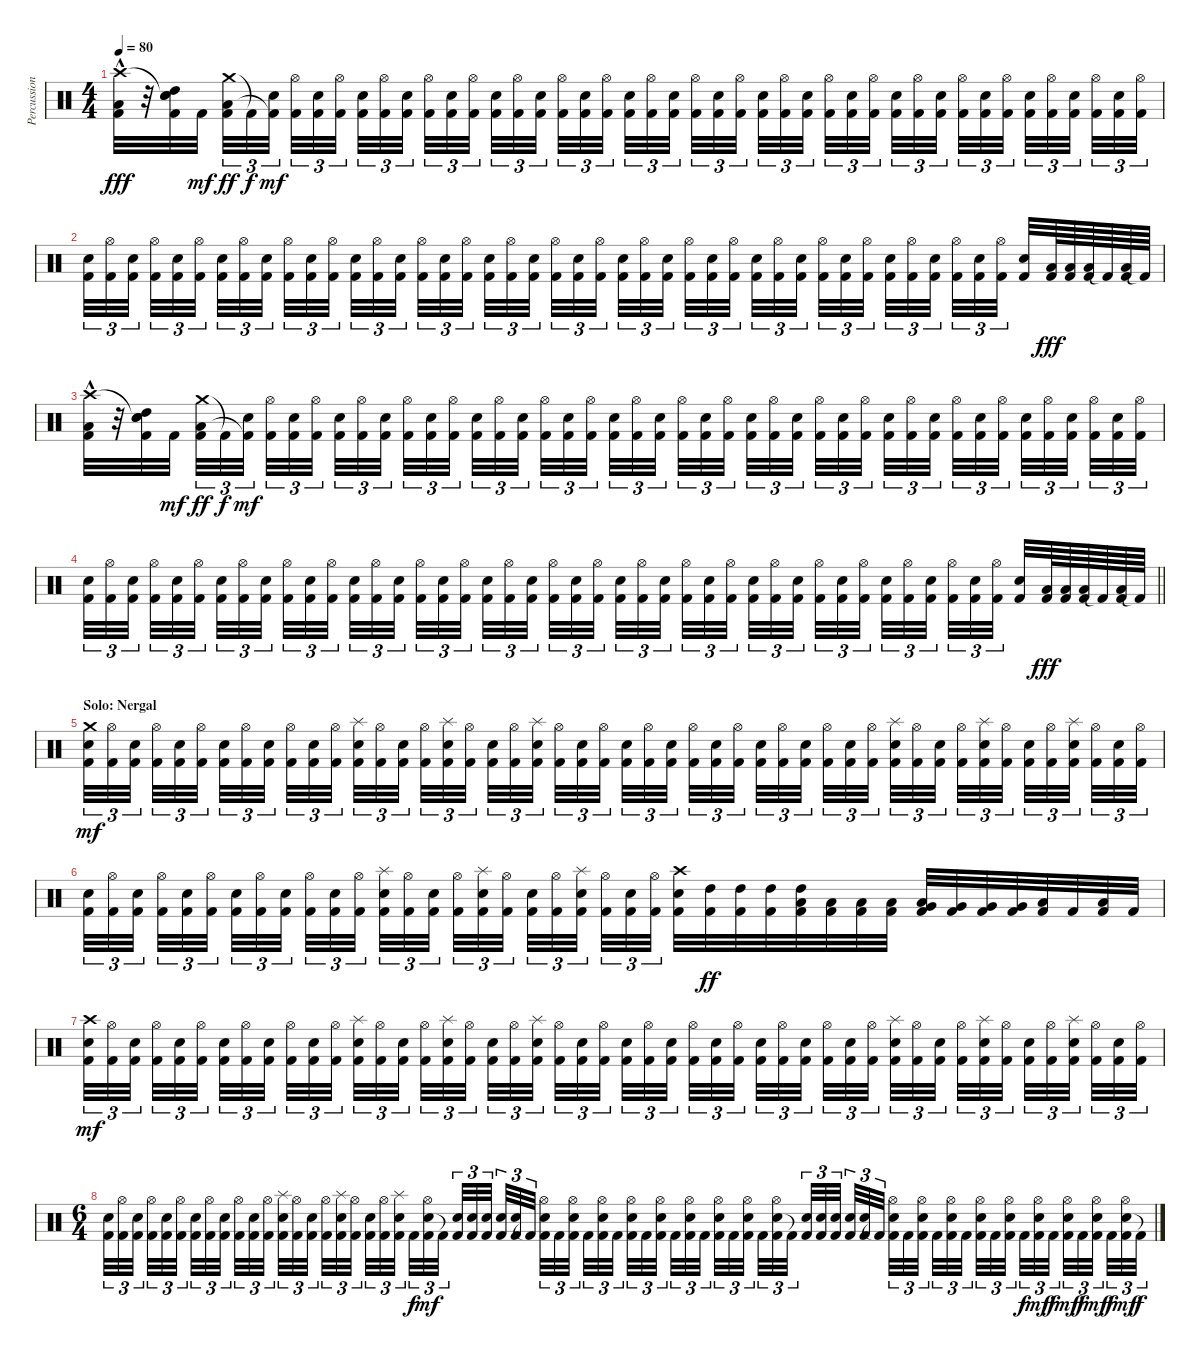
\track ("Percussion" "Percussion") {instrument percussion}
\staff {score}
\articulation defaults
\ts (4 4)
\tempo 80
\clef neutral
\ks c
("Crash high (hit)" "Low Tom (hit)"{hac} "Kick (hit) 2").32{dy fff} r.32 ("Snare (hit)"{t} "Snare (hit) 2" "High Tom (hit)" "Kick (hit) 2").32 "Kick (hit) 2".32{dy mf beam splitsecondary} ("Crash medium (hit)" "Low Tom (hit)" "Kick (hit) 2").32{tu (3 2) dy ff} "Kick (hit) 2"{t}.32{tu (3 2) dy f} ("Snare (hit) 2" "Kick (hit) 2"{t}).32{tu (3 2) dy mf beam splitsecondary} ("Hi-Hat (open)" "Kick (hit) 2").32{tu (3 2)} ("Snare (hit) 2" "Kick (hit) 2").32{tu (3 2)} ("Hi-Hat (open)" "Kick (hit) 2").32{tu (3 2)} ("Snare (hit) 2" "Kick (hit) 2").32{tu (3 2)} ("Hi-Hat (open)" "Kick (hit) 2").32{tu (3 2)} ("Snare (hit) 2" "Kick (hit) 2").32{tu (3 2) beam splitsecondary} ("Hi-Hat (open)" "Kick (hit) 2").32{tu (3 2)} ("Snare (hit) 2" "Kick (hit) 2").32{tu (3 2)} ("Hi-Hat (open)" "Kick (hit) 2").32{tu (3 2) beam splitsecondary} ("Snare (hit) 2" "Kick (hit) 2").32{tu (3 2)} ("Hi-Hat (open)" "Kick (hit) 2").32{tu (3 2)} ("Snare (hit) 2" "Kick (hit) 2").32{tu (3 2) beam splitsecondary} ("Hi-Hat (open)" "Kick (hit) 2").32{tu (3 2)} ("Snare (hit) 2" "Kick (hit) 2").32{tu (3 2)} ("Hi-Hat (open)" "Kick (hit) 2").32{tu (3 2)} ("Snare (hit) 2" "Kick (hit) 2").32{tu (3 2)} ("Hi-Hat (open)" "Kick (hit) 2").32{tu (3 2)} ("Snare (hit) 2" "Kick (hit) 2").32{tu (3 2) beam splitsecondary} ("Hi-Hat (open)" "Kick (hit) 2").32{tu (3 2)} ("Snare (hit) 2" "Kick (hit) 2").32{tu (3 2)} ("Hi-Hat (open)" "Kick (hit) 2").32{tu (3 2) beam splitsecondary} ("Snare (hit) 2" "Kick (hit) 2").32{tu (3 2)} ("Hi-Hat (open)" "Kick (hit) 2").32{tu (3 2)} ("Snare (hit) 2" "Kick (hit) 2").32{tu (3 2) beam splitsecondary} ("Hi-Hat (open)" "Kick (hit) 2").32{tu (3 2)} ("Snare (hit) 2" "Kick (hit) 2").32{tu (3 2)} ("Hi-Hat (open)" "Kick (hit) 2").32{tu (3 2)} ("Snare (hit) 2" "Kick (hit) 2").32{tu (3 2)} ("Hi-Hat (open)" "Kick (hit) 2").32{tu (3 2)} ("Snare (hit) 2" "Kick (hit) 2").32{tu (3 2) beam splitsecondary} ("Hi-Hat (open)" "Kick (hit) 2").32{tu (3 2)} ("Snare (hit) 2" "Kick (hit) 2").32{tu (3 2)} ("Hi-Hat (open)" "Kick (hit) 2").32{tu (3 2) beam splitsecondary} ("Snare (hit) 2" "Kick (hit) 2").32{tu (3 2)} ("Hi-Hat (open)" "Kick (hit) 2").32{tu (3 2)} ("Snare (hit) 2" "Kick (hit) 2").32{tu (3 2) beam splitsecondary} ("Hi-Hat (open)" "Kick (hit) 2").32{tu (3 2)} ("Snare (hit) 2" "Kick (hit) 2").32{tu (3 2)} ("Hi-Hat (open)" "Kick (hit) 2").32{tu (3 2)} |
("Snare (hit) 2" "Kick (hit) 2").32{tu (3 2)} ("Hi-Hat (open)" "Kick (hit) 2").32{tu (3 2)} ("Snare (hit) 2" "Kick (hit) 2").32{tu (3 2) beam splitsecondary} ("Hi-Hat (open)" "Kick (hit) 2").32{tu (3 2)} ("Snare (hit) 2" "Kick (hit) 2").32{tu (3 2)} ("Hi-Hat (open)" "Kick (hit) 2").32{tu (3 2) beam splitsecondary} ("Snare (hit) 2" "Kick (hit) 2").32{tu (3 2)} ("Hi-Hat (open)" "Kick (hit) 2").32{tu (3 2)} ("Snare (hit) 2" "Kick (hit) 2").32{tu (3 2) beam splitsecondary} ("Hi-Hat (open)" "Kick (hit) 2").32{tu (3 2)} ("Snare (hit) 2" "Kick (hit) 2").32{tu (3 2)} ("Hi-Hat (open)" "Kick (hit) 2").32{tu (3 2)} ("Snare (hit) 2" "Kick (hit) 2").32{tu (3 2)} ("Hi-Hat (open)" "Kick (hit) 2").32{tu (3 2)} ("Snare (hit) 2" "Kick (hit) 2").32{tu (3 2) beam splitsecondary} ("Hi-Hat (open)" "Kick (hit) 2").32{tu (3 2)} ("Snare (hit) 2" "Kick (hit) 2").32{tu (3 2)} ("Hi-Hat (open)" "Kick (hit) 2").32{tu (3 2) beam splitsecondary} ("Snare (hit) 2" "Kick (hit) 2").32{tu (3 2)} ("Hi-Hat (open)" "Kick (hit) 2").32{tu (3 2)} ("Snare (hit) 2" "Kick (hit) 2").32{tu (3 2) beam splitsecondary} ("Hi-Hat (open)" "Kick (hit) 2").32{tu (3 2)} ("Snare (hit) 2" "Kick (hit) 2").32{tu (3 2)} ("Hi-Hat (open)" "Kick (hit) 2").32{tu (3 2)} ("Snare (hit) 2" "Kick (hit) 2").32{tu (3 2)} ("Hi-Hat (open)" "Kick (hit) 2").32{tu (3 2)} ("Snare (hit) 2" "Kick (hit) 2").32{tu (3 2) beam splitsecondary} ("Hi-Hat (open)" "Kick (hit) 2").32{tu (3 2)} ("Snare (hit) 2" "Kick (hit) 2").32{tu (3 2)} ("Hi-Hat (open)" "Kick (hit) 2").32{tu (3 2) beam splitsecondary} ("Snare (hit) 2" "Kick (hit) 2").32{tu (3 2)} ("Hi-Hat (open)" "Kick (hit) 2").32{tu (3 2)} ("Snare (hit) 2" "Kick (hit) 2").32{tu (3 2) beam splitsecondary} ("Hi-Hat (open)" "Kick (hit) 2").32{tu (3 2)} ("Snare (hit) 2" "Kick (hit) 2").32{tu (3 2)} ("Hi-Hat (open)" "Kick (hit) 2").32{tu (3 2)} ("Snare (hit) 2" "Kick (hit) 2").32{tu (3 2)} ("Hi-Hat (open)" "Kick (hit) 2").32{tu (3 2)} ("Snare (hit) 2" "Kick (hit) 2").32{tu (3 2) beam splitsecondary} ("Hi-Hat (open)" "Kick (hit) 2").32{tu (3 2)} ("Snare (hit) 2" "Kick (hit) 2").32{tu (3 2)} ("Hi-Hat (open)" "Kick (hit) 2").32{tu (3 2) beam splitsecondary} ("Snare (hit) 2" "Kick (hit) 2").32 ("Low Floor Tom (hit)" "Kick (hit) 2").64{dy fff} ("Low Floor Tom (hit)" "Kick (hit) 2").64 ("Low Floor Tom (hit)" "Kick (hit) 2").64 "Kick (hit) 2"{t}.64 ("Low Tom (hit)" "Kick (hit) 2").64 "Kick (hit) 2"{t}.64 |
("Crash high (hit)" "Low Tom (hit)"{hac} "Kick (hit) 2").32 r.32 ("Snare (hit)"{t} "Snare (hit) 2" "High Tom (hit)" "Kick (hit) 2").32 "Kick (hit) 2".32{dy mf beam splitsecondary} ("Crash medium (hit)" "Low Tom (hit)" "Kick (hit) 2").32{tu (3 2) dy ff} "Kick (hit) 2"{t}.32{tu (3 2) dy f} ("Snare (hit) 2" "Kick (hit) 2"{t}).32{tu (3 2) dy mf beam splitsecondary} ("Hi-Hat (open)" "Kick (hit) 2").32{tu (3 2)} ("Snare (hit) 2" "Kick (hit) 2").32{tu (3 2)} ("Hi-Hat (open)" "Kick (hit) 2").32{tu (3 2)} ("Snare (hit) 2" "Kick (hit) 2").32{tu (3 2)} ("Hi-Hat (open)" "Kick (hit) 2").32{tu (3 2)} ("Snare (hit) 2" "Kick (hit) 2").32{tu (3 2) beam splitsecondary} ("Hi-Hat (open)" "Kick (hit) 2").32{tu (3 2)} ("Snare (hit) 2" "Kick (hit) 2").32{tu (3 2)} ("Hi-Hat (open)" "Kick (hit) 2").32{tu (3 2) beam splitsecondary} ("Snare (hit) 2" "Kick (hit) 2").32{tu (3 2)} ("Hi-Hat (open)" "Kick (hit) 2").32{tu (3 2)} ("Snare (hit) 2" "Kick (hit) 2").32{tu (3 2) beam splitsecondary} ("Hi-Hat (open)" "Kick (hit) 2").32{tu (3 2)} ("Snare (hit) 2" "Kick (hit) 2").32{tu (3 2)} ("Hi-Hat (open)" "Kick (hit) 2").32{tu (3 2)} ("Snare (hit) 2" "Kick (hit) 2").32{tu (3 2)} ("Hi-Hat (open)" "Kick (hit) 2").32{tu (3 2)} ("Snare (hit) 2" "Kick (hit) 2").32{tu (3 2) beam splitsecondary} ("Hi-Hat (open)" "Kick (hit) 2").32{tu (3 2)} ("Snare (hit) 2" "Kick (hit) 2").32{tu (3 2)} ("Hi-Hat (open)" "Kick (hit) 2").32{tu (3 2) beam splitsecondary} ("Snare (hit) 2" "Kick (hit) 2").32{tu (3 2)} ("Hi-Hat (open)" "Kick (hit) 2").32{tu (3 2)} ("Snare (hit) 2" "Kick (hit) 2").32{tu (3 2) beam splitsecondary} ("Hi-Hat (open)" "Kick (hit) 2").32{tu (3 2)} ("Snare (hit) 2" "Kick (hit) 2").32{tu (3 2)} ("Hi-Hat (open)" "Kick (hit) 2").32{tu (3 2)} ("Snare (hit) 2" "Kick (hit) 2").32{tu (3 2)} ("Hi-Hat (open)" "Kick (hit) 2").32{tu (3 2)} ("Snare (hit) 2" "Kick (hit) 2").32{tu (3 2) beam splitsecondary} ("Hi-Hat (open)" "Kick (hit) 2").32{tu (3 2)} ("Snare (hit) 2" "Kick (hit) 2").32{tu (3 2)} ("Hi-Hat (open)" "Kick (hit) 2").32{tu (3 2) beam splitsecondary} ("Snare (hit) 2" "Kick (hit) 2").32{tu (3 2)} ("Hi-Hat (open)" "Kick (hit) 2").32{tu (3 2)} ("Snare (hit) 2" "Kick (hit) 2").32{tu (3 2) beam splitsecondary} ("Hi-Hat (open)" "Kick (hit) 2").32{tu (3 2)} ("Snare (hit) 2" "Kick (hit) 2").32{tu (3 2)} ("Hi-Hat (open)" "Kick (hit) 2").32{tu (3 2)} |
\barLineRight lightlight
("Snare (hit) 2" "Kick (hit) 2").32{tu (3 2)} ("Hi-Hat (open)" "Kick (hit) 2").32{tu (3 2)} ("Snare (hit) 2" "Kick (hit) 2").32{tu (3 2) beam splitsecondary} ("Hi-Hat (open)" "Kick (hit) 2").32{tu (3 2)} ("Snare (hit) 2" "Kick (hit) 2").32{tu (3 2)} ("Hi-Hat (open)" "Kick (hit) 2").32{tu (3 2) beam splitsecondary} ("Snare (hit) 2" "Kick (hit) 2").32{tu (3 2)} ("Hi-Hat (open)" "Kick (hit) 2").32{tu (3 2)} ("Snare (hit) 2" "Kick (hit) 2").32{tu (3 2) beam splitsecondary} ("Hi-Hat (open)" "Kick (hit) 2").32{tu (3 2)} ("Snare (hit) 2" "Kick (hit) 2").32{tu (3 2)} ("Hi-Hat (open)" "Kick (hit) 2").32{tu (3 2)} ("Snare (hit) 2" "Kick (hit) 2").32{tu (3 2)} ("Hi-Hat (open)" "Kick (hit) 2").32{tu (3 2)} ("Snare (hit) 2" "Kick (hit) 2").32{tu (3 2) beam splitsecondary} ("Hi-Hat (open)" "Kick (hit) 2").32{tu (3 2)} ("Snare (hit) 2" "Kick (hit) 2").32{tu (3 2)} ("Hi-Hat (open)" "Kick (hit) 2").32{tu (3 2) beam splitsecondary} ("Snare (hit) 2" "Kick (hit) 2").32{tu (3 2)} ("Hi-Hat (open)" "Kick (hit) 2").32{tu (3 2)} ("Snare (hit) 2" "Kick (hit) 2").32{tu (3 2) beam splitsecondary} ("Hi-Hat (open)" "Kick (hit) 2").32{tu (3 2)} ("Snare (hit) 2" "Kick (hit) 2").32{tu (3 2)} ("Hi-Hat (open)" "Kick (hit) 2").32{tu (3 2)} ("Snare (hit) 2" "Kick (hit) 2").32{tu (3 2)} ("Hi-Hat (open)" "Kick (hit) 2").32{tu (3 2)} ("Snare (hit) 2" "Kick (hit) 2").32{tu (3 2) beam splitsecondary} ("Hi-Hat (open)" "Kick (hit) 2").32{tu (3 2)} ("Snare (hit) 2" "Kick (hit) 2").32{tu (3 2)} ("Hi-Hat (open)" "Kick (hit) 2").32{tu (3 2) beam splitsecondary} ("Snare (hit) 2" "Kick (hit) 2").32{tu (3 2)} ("Hi-Hat (open)" "Kick (hit) 2").32{tu (3 2)} ("Snare (hit) 2" "Kick (hit) 2").32{tu (3 2) beam splitsecondary} ("Hi-Hat (open)" "Kick (hit) 2").32{tu (3 2)} ("Snare (hit) 2" "Kick (hit) 2").32{tu (3 2)} ("Hi-Hat (open)" "Kick (hit) 2").32{tu (3 2)} ("Snare (hit) 2" "Kick (hit) 2").32{tu (3 2)} ("Hi-Hat (open)" "Kick (hit) 2").32{tu (3 2)} ("Snare (hit) 2" "Kick (hit) 2").32{tu (3 2) beam splitsecondary} ("Hi-Hat (open)" "Kick (hit) 2").32{tu (3 2)} ("Snare (hit) 2" "Kick (hit) 2").32{tu (3 2)} ("Hi-Hat (open)" "Kick (hit) 2").32{tu (3 2) beam splitsecondary} ("Snare (hit) 2" "Kick (hit) 2").32 ("Low Floor Tom (hit)" "Kick (hit) 2").64{dy fff} ("Low Floor Tom (hit)" "Kick (hit) 2").64 ("Low Floor Tom (hit)" "Kick (hit) 2").64 "Kick (hit) 2"{t}.64 ("Low Tom (hit)" "Kick (hit) 2").64 "Kick (hit) 2"{t}.64 |
\section ("" "Solo: Nergal")
("Crash medium (hit)" "Snare (hit) 2" "Kick (hit) 2").32{tu (3 2) dy mf} ("Hi-Hat (open)" "Kick (hit) 2").32{tu (3 2)} ("Snare (hit) 2" "Kick (hit) 2").32{tu (3 2) beam splitsecondary} ("Hi-Hat (open)" "Kick (hit) 2").32{tu (3 2)} ("Snare (hit) 2" "Kick (hit) 2").32{tu (3 2)} ("Hi-Hat (open)" "Kick (hit) 2").32{tu (3 2) beam splitsecondary} ("Snare (hit) 2" "Kick (hit) 2").32{tu (3 2)} ("Hi-Hat (open)" "Kick (hit) 2").32{tu (3 2)} ("Snare (hit) 2" "Kick (hit) 2").32{tu (3 2) beam splitsecondary} ("Hi-Hat (open)" "Kick (hit) 2").32{tu (3 2)} ("Snare (hit) 2" "Kick (hit) 2").32{tu (3 2)} ("Hi-Hat (open)" "Kick (hit) 2").32{tu (3 2)} ("Splash (hit)" "Snare (hit) 2" "Kick (hit) 2").32{tu (3 2)} ("Hi-Hat (open)" "Kick (hit) 2").32{tu (3 2)} ("Snare (hit) 2" "Kick (hit) 2").32{tu (3 2) beam splitsecondary} ("Hi-Hat (open)" "Kick (hit) 2").32{tu (3 2)} ("Splash (hit)" "Snare (hit) 2" "Kick (hit) 2").32{tu (3 2)} ("Hi-Hat (open)" "Kick (hit) 2").32{tu (3 2) beam splitsecondary} ("Snare (hit) 2" "Kick (hit) 2").32{tu (3 2)} ("Hi-Hat (open)" "Kick (hit) 2").32{tu (3 2)} ("Splash (hit)" "Snare (hit) 2" "Kick (hit) 2").32{tu (3 2) beam splitsecondary} ("Hi-Hat (open)" "Kick (hit) 2").32{tu (3 2)} ("Snare (hit) 2" "Kick (hit) 2").32{tu (3 2)} ("Hi-Hat (open)" "Kick (hit) 2").32{tu (3 2)} ("Snare (hit) 2" "Kick (hit) 2").32{tu (3 2)} ("Hi-Hat (open)" "Kick (hit) 2").32{tu (3 2)} ("Snare (hit) 2" "Kick (hit) 2").32{tu (3 2) beam splitsecondary} ("Hi-Hat (open)" "Kick (hit) 2").32{tu (3 2)} ("Snare (hit) 2" "Kick (hit) 2").32{tu (3 2)} ("Hi-Hat (open)" "Kick (hit) 2").32{tu (3 2) beam splitsecondary} ("Snare (hit) 2" "Kick (hit) 2").32{tu (3 2)} ("Hi-Hat (open)" "Kick (hit) 2").32{tu (3 2)} ("Snare (hit) 2" "Kick (hit) 2").32{tu (3 2) beam splitsecondary} ("Hi-Hat (open)" "Kick (hit) 2").32{tu (3 2)} ("Snare (hit) 2" "Kick (hit) 2").32{tu (3 2)} ("Hi-Hat (open)" "Kick (hit) 2").32{tu (3 2)} ("Splash (hit)" "Snare (hit) 2" "Kick (hit) 2").32{tu (3 2)} ("Hi-Hat (open)" "Kick (hit) 2").32{tu (3 2)} ("Snare (hit) 2" "Kick (hit) 2").32{tu (3 2) beam splitsecondary} ("Hi-Hat (open)" "Kick (hit) 2").32{tu (3 2)} ("Splash (hit)" "Snare (hit) 2" "Kick (hit) 2").32{tu (3 2)} ("Hi-Hat (open)" "Kick (hit) 2").32{tu (3 2) beam splitsecondary} ("Snare (hit) 2" "Kick (hit) 2").32{tu (3 2)} ("Hi-Hat (open)" "Kick (hit) 2").32{tu (3 2)} ("Splash (hit)" "Snare (hit) 2" "Kick (hit) 2").32{tu (3 2) beam splitsecondary} ("Hi-Hat (open)" "Kick (hit) 2").32{tu (3 2)} ("Snare (hit) 2" "Kick (hit) 2").32{tu (3 2)} ("Hi-Hat (open)" "Kick (hit) 2").32{tu (3 2)} |
("Snare (hit) 2" "Kick (hit) 2").32{tu (3 2)} ("Hi-Hat (open)" "Kick (hit) 2").32{tu (3 2)} ("Snare (hit) 2" "Kick (hit) 2").32{tu (3 2) beam splitsecondary} ("Hi-Hat (open)" "Kick (hit) 2").32{tu (3 2)} ("Snare (hit) 2" "Kick (hit) 2").32{tu (3 2)} ("Hi-Hat (open)" "Kick (hit) 2").32{tu (3 2) beam splitsecondary} ("Snare (hit) 2" "Kick (hit) 2").32{tu (3 2)} ("Hi-Hat (open)" "Kick (hit) 2").32{tu (3 2)} ("Snare (hit) 2" "Kick (hit) 2").32{tu (3 2) beam splitsecondary} ("Hi-Hat (open)" "Kick (hit) 2").32{tu (3 2)} ("Snare (hit) 2" "Kick (hit) 2").32{tu (3 2)} ("Hi-Hat (open)" "Kick (hit) 2").32{tu (3 2)} ("Splash (hit)" "Snare (hit) 2" "Kick (hit) 2").32{tu (3 2)} ("Hi-Hat (open)" "Kick (hit) 2").32{tu (3 2)} ("Snare (hit) 2" "Kick (hit) 2").32{tu (3 2) beam splitsecondary} ("Hi-Hat (open)" "Kick (hit) 2").32{tu (3 2)} ("Splash (hit)" "Snare (hit) 2" "Kick (hit) 2").32{tu (3 2)} ("Hi-Hat (open)" "Kick (hit) 2").32{tu (3 2) beam splitsecondary} ("Snare (hit) 2" "Kick (hit) 2").32{tu (3 2)} ("Hi-Hat (open)" "Kick (hit) 2").32{tu (3 2)} ("Splash (hit)" "Snare (hit) 2" "Kick (hit) 2").32{tu (3 2) beam splitsecondary} ("Hi-Hat (open)" "Kick (hit) 2").32{tu (3 2)} ("Snare (hit) 2" "Kick (hit) 2").32{tu (3 2)} ("Hi-Hat (open)" "Kick (hit) 2").32{tu (3 2)} ("Crash high (hit)" "Snare (hit) 2" "Kick (hit) 2").32 ("High Tom (hit)" "Kick (hit) 2").32{dy ff} ("High Tom (hit)" "Kick (hit) 2").32 ("High Tom (hit)" "Kick (hit) 2").32 ("High Tom (hit)" "Low Tom (hit)" "Kick (hit) 2").32 ("Low Tom (hit)" "Kick (hit) 2").32 ("Low Tom (hit)" "Kick (hit) 2").32 ("Low Tom (hit)" "Kick (hit) 2").32 ("Low Tom (hit)" "Very Low Tom (hit)" "Kick (hit) 2").32 ("Very Low Tom (hit)" "Kick (hit) 2").32 ("Very Low Tom (hit)" "Kick (hit) 2").32 ("Very Low Tom (hit)" "Kick (hit) 2").32 ("Low Floor Tom (hit)" "Kick (hit) 2").32 "Kick (hit) 2".32 ("Low Floor Tom (hit)" "Kick (hit) 2").32 "Kick (hit) 2".32 |
("Crash high (hit)" "Snare (hit) 2" "Kick (hit) 2").32{tu (3 2) dy mf} ("Hi-Hat (open)" "Kick (hit) 2").32{tu (3 2)} ("Snare (hit) 2" "Kick (hit) 2").32{tu (3 2) beam splitsecondary} ("Hi-Hat (open)" "Kick (hit) 2").32{tu (3 2)} ("Snare (hit) 2" "Kick (hit) 2").32{tu (3 2)} ("Hi-Hat (open)" "Kick (hit) 2").32{tu (3 2) beam splitsecondary} ("Snare (hit) 2" "Kick (hit) 2").32{tu (3 2)} ("Hi-Hat (open)" "Kick (hit) 2").32{tu (3 2)} ("Snare (hit) 2" "Kick (hit) 2").32{tu (3 2) beam splitsecondary} ("Hi-Hat (open)" "Kick (hit) 2").32{tu (3 2)} ("Snare (hit) 2" "Kick (hit) 2").32{tu (3 2)} ("Hi-Hat (open)" "Kick (hit) 2").32{tu (3 2)} ("Splash (hit)" "Snare (hit) 2" "Kick (hit) 2").32{tu (3 2)} ("Hi-Hat (open)" "Kick (hit) 2").32{tu (3 2)} ("Snare (hit) 2" "Kick (hit) 2").32{tu (3 2) beam splitsecondary} ("Hi-Hat (open)" "Kick (hit) 2").32{tu (3 2)} ("Splash (hit)" "Snare (hit) 2" "Kick (hit) 2").32{tu (3 2)} ("Hi-Hat (open)" "Kick (hit) 2").32{tu (3 2) beam splitsecondary} ("Snare (hit) 2" "Kick (hit) 2").32{tu (3 2)} ("Hi-Hat (open)" "Kick (hit) 2").32{tu (3 2)} ("Splash (hit)" "Snare (hit) 2" "Kick (hit) 2").32{tu (3 2) beam splitsecondary} ("Hi-Hat (open)" "Kick (hit) 2").32{tu (3 2)} ("Snare (hit) 2" "Kick (hit) 2").32{tu (3 2)} ("Hi-Hat (open)" "Kick (hit) 2").32{tu (3 2)} ("Snare (hit) 2" "Kick (hit) 2").32{tu (3 2)} ("Hi-Hat (open)" "Kick (hit) 2").32{tu (3 2)} ("Snare (hit) 2" "Kick (hit) 2").32{tu (3 2) beam splitsecondary} ("Hi-Hat (open)" "Kick (hit) 2").32{tu (3 2)} ("Snare (hit) 2" "Kick (hit) 2").32{tu (3 2)} ("Hi-Hat (open)" "Kick (hit) 2").32{tu (3 2) beam splitsecondary} ("Snare (hit) 2" "Kick (hit) 2").32{tu (3 2)} ("Hi-Hat (open)" "Kick (hit) 2").32{tu (3 2)} ("Snare (hit) 2" "Kick (hit) 2").32{tu (3 2) beam splitsecondary} ("Hi-Hat (open)" "Kick (hit) 2").32{tu (3 2)} ("Snare (hit) 2" "Kick (hit) 2").32{tu (3 2)} ("Hi-Hat (open)" "Kick (hit) 2").32{tu (3 2)} ("Splash (hit)" "Snare (hit) 2" "Kick (hit) 2").32{tu (3 2)} ("Hi-Hat (open)" "Kick (hit) 2").32{tu (3 2)} ("Snare (hit) 2" "Kick (hit) 2").32{tu (3 2) beam splitsecondary} ("Hi-Hat (open)" "Kick (hit) 2").32{tu (3 2)} ("Splash (hit)" "Snare (hit) 2" "Kick (hit) 2").32{tu (3 2)} ("Hi-Hat (open)" "Kick (hit) 2").32{tu (3 2) beam splitsecondary} ("Snare (hit) 2" "Kick (hit) 2").32{tu (3 2)} ("Hi-Hat (open)" "Kick (hit) 2").32{tu (3 2)} ("Splash (hit)" "Snare (hit) 2" "Kick (hit) 2").32{tu (3 2) beam splitsecondary} ("Hi-Hat (open)" "Kick (hit) 2").32{tu (3 2)} ("Snare (hit) 2" "Kick (hit) 2").32{tu (3 2)} ("Hi-Hat (open)" "Kick (hit) 2").32{tu (3 2)} |
\ts (6 4)
("Snare (hit) 2" "Kick (hit) 2").32{tu (3 2)} ("Hi-Hat (open)" "Kick (hit) 2").32{tu (3 2)} ("Snare (hit) 2" "Kick (hit) 2").32{tu (3 2) beam splitsecondary} ("Hi-Hat (open)" "Kick (hit) 2").32{tu (3 2)} ("Snare (hit) 2" "Kick (hit) 2").32{tu (3 2)} ("Hi-Hat (open)" "Kick (hit) 2").32{tu (3 2) beam splitsecondary} ("Snare (hit) 2" "Kick (hit) 2").32{tu (3 2)} ("Hi-Hat (open)" "Kick (hit) 2").32{tu (3 2)} ("Snare (hit) 2" "Kick (hit) 2").32{tu (3 2) beam splitsecondary} ("Hi-Hat (open)" "Kick (hit) 2").32{tu (3 2)} ("Snare (hit) 2" "Kick (hit) 2").32{tu (3 2)} ("Hi-Hat (open)" "Kick (hit) 2").32{tu (3 2) beam splitsecondary} ("Splash (hit)" "Snare (hit) 2" "Kick (hit) 2").32{tu (3 2)} ("Hi-Hat (open)" "Kick (hit) 2").32{tu (3 2)} ("Snare (hit) 2" "Kick (hit) 2").32{tu (3 2) beam splitsecondary} ("Hi-Hat (open)" "Kick (hit) 2").32{tu (3 2)} ("Splash (hit)" "Snare (hit) 2" "Kick (hit) 2").32{tu (3 2)} ("Hi-Hat (open)" "Kick (hit) 2").32{tu (3 2) beam splitsecondary} ("Snare (hit) 2" "Kick (hit) 2").32{tu (3 2)} ("Hi-Hat (open)" "Kick (hit) 2").32{tu (3 2)} ("Splash (hit)" "Snare (hit) 2" "Kick (hit) 2").32{tu (3 2) beam splitsecondary} "Kick (hit) 2".32{tu (3 2) dy f} ("Snare (hit) 2" "Hi-Hat (open)" "Kick (hit) 2").32{tu (3 2) dy mf} "Kick (hit) 2"{t}.32{tu (3 2) beam splitsecondary} ("Snare (hit) 2" "Kick (hit) 2").32{tu (3 2)} ("Snare (hit) 2" "Kick (hit) 2").32{tu (3 2)} ("Snare (hit) 2" "Kick (hit) 2").32{tu (3 2) beam splitsecondary} ("Snare (hit) 2" "Kick (hit) 2").32{tu (3 2)} ("Snare (hit) 2" "Kick (hit) 2").32{tu (3 2)} "Kick (hit) 2"{t}.32{tu (3 2) beam splitsecondary} ("Snare (hit) 2" "Hi-Hat (open)" "Kick (hit) 2").32{tu (3 2)} "Kick (hit) 2".32{tu (3 2)} ("Snare (hit) 2" "Hi-Hat (open)" "Kick (hit) 2").32{tu (3 2) beam splitsecondary} "Kick (hit) 2".32{tu (3 2)} ("Snare (hit) 2" "Hi-Hat (open)" "Kick (hit) 2").32{tu (3 2)} "Kick (hit) 2".32{tu (3 2)} ("Snare (hit) 2" "Hi-Hat (open)" "Kick (hit) 2").32{tu (3 2)} "Kick (hit) 2".32{tu (3 2)} ("Snare (hit) 2" "Hi-Hat (open)" "Kick (hit) 2").32{tu (3 2) beam splitsecondary} "Kick (hit) 2".32{tu (3 2)} ("Snare (hit) 2" "Hi-Hat (open)" "Kick (hit) 2").32{tu (3 2)} "Kick (hit) 2".32{tu (3 2) beam splitsecondary} ("Snare (hit) 2" "Hi-Hat (open)" "Kick (hit) 2").32{tu (3 2)} "Kick (hit) 2".32{tu (3 2)} ("Snare (hit) 2" "Hi-Hat (open)" "Kick (hit) 2").32{tu (3 2) beam splitsecondary} "Kick (hit) 2".32{tu (3 2)} ("Snare (hit) 2" "Hi-Hat (open)" "Kick (hit) 2").32{tu (3 2)} "Kick (hit) 2"{t}.32{tu (3 2) beam splitsecondary} ("Snare (hit) 2" "Kick (hit) 2").32{tu (3 2)} ("Snare (hit) 2" "Kick (hit) 2").32{tu (3 2)} ("Snare (hit) 2" "Kick (hit) 2").32{tu (3 2) beam splitsecondary} ("Snare (hit) 2" "Kick (hit) 2").32{tu (3 2)} ("Snare (hit) 2" "Kick (hit) 2").32{tu (3 2)} "Kick (hit) 2"{t}.32{tu (3 2) beam splitsecondary} ("Snare (hit) 2" "Hi-Hat (open)" "Kick (hit) 2").32{tu (3 2)} "Kick (hit) 2".32{tu (3 2)} ("Snare (hit) 2" "Hi-Hat (open)" "Kick (hit) 2").32{tu (3 2) beam splitsecondary} "Kick (hit) 2".32{tu (3 2)} ("Snare (hit) 2" "Hi-Hat (open)" "Kick (hit) 2").32{tu (3 2)} "Kick (hit) 2".32{tu (3 2) beam splitsecondary} ("Snare (hit) 2" "Hi-Hat (open)" "Kick (hit) 2").32{tu (3 2)} "Kick (hit) 2".32{tu (3 2)} ("Snare (hit) 2" "Hi-Hat (open)" "Kick (hit) 2").32{tu (3 2) beam splitsecondary} "Kick (hit) 2".32{tu (3 2) dy f} ("Snare (hit) 2" "Hi-Hat (open)" "Kick (hit) 2").32{tu (3 2) dy mf} "Kick (hit) 2".32{tu (3 2) dy f beam splitsecondary} ("Snare (hit) 2" "Hi-Hat (open)" "Kick (hit) 2").32{tu (3 2) dy mf} "Kick (hit) 2".32{tu (3 2) dy f} ("Snare (hit) 2" "Hi-Hat (open)" "Kick (hit) 2").32{tu (3 2) dy mf beam splitsecondary} "Kick (hit) 2".32{tu (3 2) dy f} ("Snare (hit) 2" "Hi-Hat (open)" "Kick (hit) 2").32{tu (3 2) dy mf} "Kick (hit) 2"{t}.32{tu (3 2) dy f}
